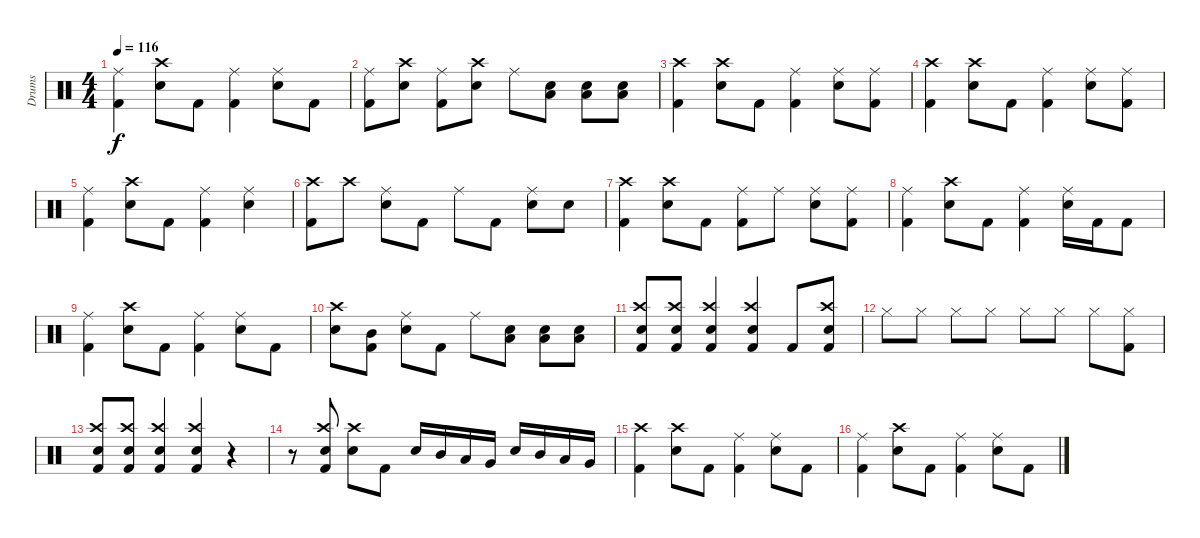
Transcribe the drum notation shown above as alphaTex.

\track ("Drums" "Drums") {instrument percussion}
\staff {score}
\articulation defaults
\ts (4 4)
\tempo 116
\clef neutral
\ks c
("Ride (middle)" "Kick (hit) 2").4{dy f} ("Crash high (hit)" "Electric Snare (hit)").8 "Kick (hit) 2".8 ("Ride (middle)" "Kick (hit) 2").4 ("Ride (middle)" "Electric Snare (hit)").8 "Kick (hit) 2".8 |
("Ride (middle)" "Kick (hit) 2").8 ("Crash high (hit)" "Electric Snare (hit)").8 ("Ride (middle)" "Kick (hit) 2").8 ("Crash high (hit)" "Electric Snare (hit)").8 "Ride (middle)".8 ("Low Tom (hit)" "Electric Snare (hit)").8 ("Low Tom (hit)" "Electric Snare (hit)").8 ("Low Tom (hit)" "Electric Snare (hit)").8 |
("Crash high (hit)" "Kick (hit) 2").4 ("Crash high (hit)" "Electric Snare (hit)").8 "Kick (hit) 2".8 ("Ride (middle)" "Kick (hit) 2").4 ("Ride (middle)" "Electric Snare (hit)").8 ("Ride (middle)" "Kick (hit) 2").8 |
("Crash high (hit)" "Kick (hit) 2").4 ("Crash high (hit)" "Electric Snare (hit)").8 "Kick (hit) 2".8 ("Ride (middle)" "Kick (hit) 2").4 ("Ride (middle)" "Electric Snare (hit)").8 ("Ride (middle)" "Kick (hit) 2").8 |
("Ride (middle)" "Kick (hit) 2").4 ("Crash high (hit)" "Electric Snare (hit)").8 "Kick (hit) 2".8 ("Ride (middle)" "Kick (hit) 2").4 ("Ride (middle)" "Electric Snare (hit)").4 |
("Crash high (hit)" "Kick (hit) 2").8 "Crash high (hit)".8 ("Ride (middle)" "Electric Snare (hit)").8 "Kick (hit) 2".8 "Ride (middle)".8 "Kick (hit) 2".8 ("Ride (middle)" "Electric Snare (hit)").8 "Electric Snare (hit)".8 |
("Crash high (hit)" "Kick (hit) 2").4 ("Crash high (hit)" "Electric Snare (hit)").8 "Kick (hit) 2".8 ("Ride (middle)" "Kick (hit) 2").8 "Ride (middle)".8 ("Ride (middle)" "Electric Snare (hit)").8 ("Ride (middle)" "Kick (hit) 2").8 |
("Ride (middle)" "Kick (hit) 2").4 ("Crash high (hit)" "Electric Snare (hit)").8 "Kick (hit) 2".8 ("Ride (middle)" "Kick (hit) 2").4 ("Ride (middle)" "Electric Snare (hit)").16 "Kick (hit) 2".16 "Kick (hit) 2".8 |
("Ride (middle)" "Kick (hit) 2").4 ("Crash high (hit)" "Electric Snare (hit)").8 "Kick (hit) 2".8 ("Ride (middle)" "Kick (hit) 2").4 ("Ride (middle)" "Electric Snare (hit)").8 "Kick (hit) 2".8 |
("Crash high (hit)" "Electric Snare (hit)").8 ("Mid Tom (hit)" "Kick (hit) 2").8 ("Ride (middle)" "Electric Snare (hit)").8 "Kick (hit) 2".8 "Ride (middle)".8 ("Low Tom (hit)" "Electric Snare (hit)").8 ("Low Tom (hit)" "Electric Snare (hit)").8 ("Low Tom (hit)" "Electric Snare (hit)").8 |
("Crash high (hit)" "Electric Snare (hit)" "Kick (hit) 2").8 ("Crash high (hit)" "Electric Snare (hit)" "Kick (hit) 2").8 ("Crash high (hit)" "Electric Snare (hit)" "Kick (hit) 2").4 ("Crash high (hit)" "Electric Snare (hit)" "Kick (hit) 2").4 "Kick (hit) 2".8 ("Crash high (hit)" "Electric Snare (hit)" "Kick (hit) 2").8 |
"Hi-Hat (closed)".8 "Hi-Hat (closed)".8 "Hi-Hat (closed)".8 "Hi-Hat (closed)".8 "Hi-Hat (closed)".8 "Hi-Hat (closed)".8 "Hi-Hat (closed)".8 ("Hi-Hat (closed)" "Kick (hit) 2").8 |
("Crash high (hit)" "Electric Snare (hit)" "Kick (hit) 2").8 ("Crash high (hit)" "Electric Snare (hit)" "Kick (hit) 2").8 ("Crash high (hit)" "Electric Snare (hit)" "Kick (hit) 2").4 ("Crash high (hit)" "Electric Snare (hit)" "Kick (hit) 2").4 r.4 |
r.8 ("Crash high (hit)" "Electric Snare (hit)" "Kick (hit) 2").8 ("Crash high (hit)" "Electric Snare (hit)").8 "Kick (hit) 2".8 "Electric Snare (hit)".16 "Mid Tom (hit)".16 "Low Tom (hit)".16 "Very Low Tom (hit)".16 "Electric Snare (hit)".16 "Mid Tom (hit)".16 "Low Tom (hit)".16 "Very Low Tom (hit)".16 |
("Crash high (hit)" "Kick (hit) 2").4 ("Crash high (hit)" "Electric Snare (hit)").8 "Kick (hit) 2".8 ("Ride (middle)" "Kick (hit) 2").4 ("Ride (middle)" "Electric Snare (hit)").8 "Kick (hit) 2".8 |
("Ride (middle)" "Kick (hit) 2").4 ("Crash high (hit)" "Electric Snare (hit)").8 "Kick (hit) 2".8 ("Ride (middle)" "Kick (hit) 2").4 ("Ride (middle)" "Electric Snare (hit)").8 "Kick (hit) 2".8
